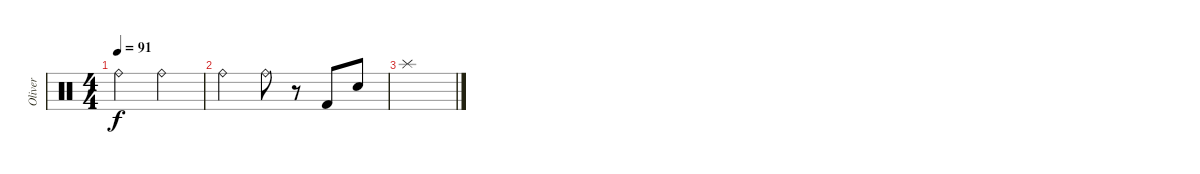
\track ("Oliver" "Oliver") {instrument percussion}
\staff {score}
\articulation defaults
\ts (4 4)
\tempo 91
\clef neutral
\ks c "Ride (bell)".2{dy f} "Ride (bell)".2
|
"Ride (bell)".2 "Ride (bell)".8 r.8 "Kick (hit) 2".8 "Snare (hit) 2".8 |
"Splash (hit)".1
